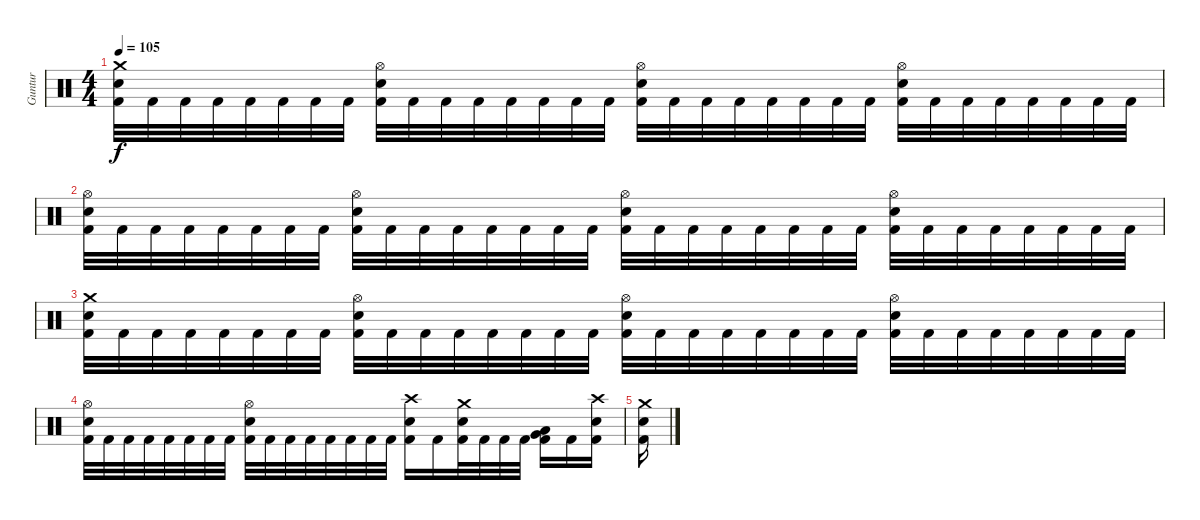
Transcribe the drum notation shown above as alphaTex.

\track ("Guntur" "Guntur") {instrument percussion}
\staff {score}
\articulation defaults
\ts (4 4)
\tempo 105
\clef neutral
\ks c
("Crash medium (hit)" "Electric Snare (hit)" "Kick (hit) 2").32{dy f} "Kick (hit) 2".32 "Kick (hit) 2".32 "Kick (hit) 2".32 "Kick (hit) 2".32 "Kick (hit) 2".32 "Kick (hit) 2".32 "Kick (hit) 2".32 ("Hi-Hat (open)" "Electric Snare (hit)" "Kick (hit) 2").32 "Kick (hit) 2".32 "Kick (hit) 2".32 "Kick (hit) 2".32 "Kick (hit) 2".32 "Kick (hit) 2".32 "Kick (hit) 2".32 "Kick (hit) 2".32 ("Hi-Hat (open)" "Electric Snare (hit)" "Kick (hit) 2").32 "Kick (hit) 2".32 "Kick (hit) 2".32 "Kick (hit) 2".32 "Kick (hit) 2".32 "Kick (hit) 2".32 "Kick (hit) 2".32 "Kick (hit) 2".32 ("Hi-Hat (open)" "Electric Snare (hit)" "Kick (hit) 2").32 "Kick (hit) 2".32 "Kick (hit) 2".32 "Kick (hit) 2".32 "Kick (hit) 2".32 "Kick (hit) 2".32 "Kick (hit) 2".32 "Kick (hit) 2".32 |
("Hi-Hat (open)" "Electric Snare (hit)" "Kick (hit) 2").32 "Kick (hit) 2".32 "Kick (hit) 2".32 "Kick (hit) 2".32 "Kick (hit) 2".32 "Kick (hit) 2".32 "Kick (hit) 2".32 "Kick (hit) 2".32 ("Hi-Hat (open)" "Electric Snare (hit)" "Kick (hit) 2").32 "Kick (hit) 2".32 "Kick (hit) 2".32 "Kick (hit) 2".32 "Kick (hit) 2".32 "Kick (hit) 2".32 "Kick (hit) 2".32 "Kick (hit) 2".32 ("Hi-Hat (open)" "Electric Snare (hit)" "Kick (hit) 2").32 "Kick (hit) 2".32 "Kick (hit) 2".32 "Kick (hit) 2".32 "Kick (hit) 2".32 "Kick (hit) 2".32 "Kick (hit) 2".32 "Kick (hit) 2".32 ("Hi-Hat (open)" "Electric Snare (hit)" "Kick (hit) 2").32 "Kick (hit) 2".32 "Kick (hit) 2".32 "Kick (hit) 2".32 "Kick (hit) 2".32 "Kick (hit) 2".32 "Kick (hit) 2".32 "Kick (hit) 2".32 |
("Crash medium (hit)" "Electric Snare (hit)" "Kick (hit) 2").32 "Kick (hit) 2".32 "Kick (hit) 2".32 "Kick (hit) 2".32 "Kick (hit) 2".32 "Kick (hit) 2".32 "Kick (hit) 2".32 "Kick (hit) 2".32 ("Hi-Hat (open)" "Electric Snare (hit)" "Kick (hit) 2").32 "Kick (hit) 2".32 "Kick (hit) 2".32 "Kick (hit) 2".32 "Kick (hit) 2".32 "Kick (hit) 2".32 "Kick (hit) 2".32 "Kick (hit) 2".32 ("Hi-Hat (open)" "Electric Snare (hit)" "Kick (hit) 2").32 "Kick (hit) 2".32 "Kick (hit) 2".32 "Kick (hit) 2".32 "Kick (hit) 2".32 "Kick (hit) 2".32 "Kick (hit) 2".32 "Kick (hit) 2".32 ("Hi-Hat (open)" "Electric Snare (hit)" "Kick (hit) 2").32 "Kick (hit) 2".32 "Kick (hit) 2".32 "Kick (hit) 2".32 "Kick (hit) 2".32 "Kick (hit) 2".32 "Kick (hit) 2".32 "Kick (hit) 2".32 |
("Hi-Hat (open)" "Electric Snare (hit)" "Kick (hit) 2").32 "Kick (hit) 2".32 "Kick (hit) 2".32 "Kick (hit) 2".32 "Kick (hit) 2".32 "Kick (hit) 2".32 "Kick (hit) 2".32 "Kick (hit) 2".32 ("Hi-Hat (open)" "Electric Snare (hit)" "Kick (hit) 2").32 "Kick (hit) 2".32 "Kick (hit) 2".32 "Kick (hit) 2".32 "Kick (hit) 2".32 "Kick (hit) 2".32 "Kick (hit) 2".32 "Kick (hit) 2".32 ("Crash high (hit)" "Electric Snare (hit)" "Kick (hit) 2").16 "Kick (hit) 2".16 ("Crash medium (hit)" "Electric Snare (hit)" "Kick (hit) 2").32 "Kick (hit) 2".32 "Kick (hit) 2".32 "Kick (hit) 2".32 ("Very Low Tom (hit)" "Low Floor Tom (hit)" "Kick (hit) 2").16 "Kick (hit) 2".16 ("Crash high (hit)" "Electric Snare (hit)" "Kick (hit) 2").16 |
("Crash medium (hit)" "Electric Snare (hit)" "Kick (hit) 2").16
